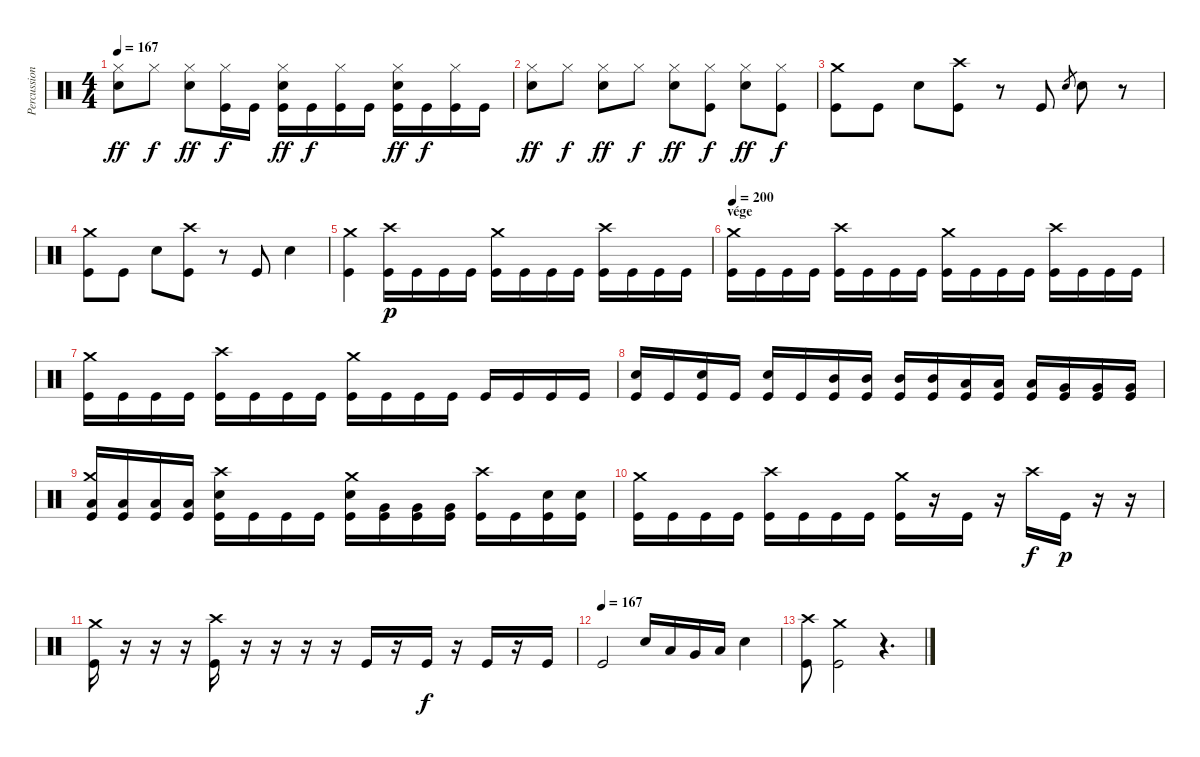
\track ("Percussion" "Percussion") {instrument percussion}
\staff {score}
\articulation defaults
\ts (4 4)
\tempo 167
\clef neutral
\ks c
("Hi-Hat (closed)" "Electric Snare (hit)").8{dy ff} "Hi-Hat (closed)".8{dy f} ("Hi-Hat (closed)" "Electric Snare (hit)").8{dy ff} ("Hi-Hat (closed)" "Kick (hit)").16{dy f} "Kick (hit)".16 ("Hi-Hat (closed)" "Kick (hit)" "Electric Snare (hit)").16{dy ff} "Kick (hit)".16{dy f} ("Hi-Hat (closed)" "Kick (hit)").16 "Kick (hit)".16 ("Hi-Hat (closed)" "Kick (hit)" "Electric Snare (hit)").16{dy ff} "Kick (hit)".16{dy f} ("Hi-Hat (closed)" "Kick (hit)").16 "Kick (hit)".16 |
("Hi-Hat (closed)" "Electric Snare (hit)").8{dy ff} "Hi-Hat (closed)".8{dy f} ("Hi-Hat (closed)" "Electric Snare (hit)").8{dy ff} "Hi-Hat (closed)".8{dy f} ("Hi-Hat (closed)" "Electric Snare (hit)").8{dy ff} ("Hi-Hat (closed)" "Kick (hit)").8{dy f} ("Hi-Hat (closed)" "Electric Snare (hit)").8{dy ff} ("Hi-Hat (closed)" "Kick (hit)").8{dy f} |
("Crash medium (hit)" "Kick (hit)").8 "Kick (hit)".8 "Electric Snare (hit)".8 ("Crash high (hit)" "Kick (hit)").8 r.8 "Kick (hit)".8 "Electric Snare (hit)".8{gr} "Electric Snare (hit)".8 r.8 |
("Crash medium (hit)" "Kick (hit)").8 "Kick (hit)".8 "Electric Snare (hit)".8 ("Crash high (hit)" "Kick (hit)").8 r.8 "Kick (hit)".8 "Electric Snare (hit)".4 |
("Crash medium (hit)" "Kick (hit)").4{volume 10} ("Crash high (hit)" "Kick (hit)").16{dy p} "Kick (hit)".16 "Kick (hit)".16 "Kick (hit)".16 ("Crash medium (hit)" "Kick (hit)").16 "Kick (hit)".16 "Kick (hit)".16 "Kick (hit)".16 ("Crash high (hit)" "Kick (hit)").16 "Kick (hit)".16 "Kick (hit)".16 "Kick (hit)".16 |
\section ("" "vége")
\tempo 200
("Crash medium (hit)" "Kick (hit)").16 "Kick (hit)".16 "Kick (hit)".16 "Kick (hit)".16 ("Crash high (hit)" "Kick (hit)").16 "Kick (hit)".16 "Kick (hit)".16 "Kick (hit)".16 ("Crash medium (hit)" "Kick (hit)").16 "Kick (hit)".16 "Kick (hit)".16 "Kick (hit)".16 ("Crash high (hit)" "Kick (hit)").16 "Kick (hit)".16 "Kick (hit)".16 "Kick (hit)".16 |
("Crash medium (hit)" "Kick (hit)").16 "Kick (hit)".16 "Kick (hit)".16 "Kick (hit)".16 ("Crash high (hit)" "Kick (hit)").16 "Kick (hit)".16 "Kick (hit)".16 "Kick (hit)".16 ("Crash medium (hit)" "Kick (hit)").16 "Kick (hit)".16 "Kick (hit)".16 "Kick (hit)".16 "Kick (hit)".16 "Kick (hit)".16 "Kick (hit)".16 "Kick (hit)".16 |
("Kick (hit)" "Electric Snare (hit)").16 "Kick (hit)".16 ("Kick (hit)" "Electric Snare (hit)").16 "Kick (hit)".16 ("Kick (hit)" "Electric Snare (hit)").16 "Kick (hit)".16 ("Kick (hit)" "Mid Tom (hit)").16 ("Kick (hit)" "Mid Tom (hit)").16 ("Kick (hit)" "Mid Tom (hit)").16 ("Kick (hit)" "Mid Tom (hit)").16 ("Kick (hit)" "Low Tom (hit)").16 ("Kick (hit)" "Low Tom (hit)").16 ("Kick (hit)" "Low Tom (hit)").16 ("Kick (hit)" "Very Low Tom (hit)").16 ("Kick (hit)" "Very Low Tom (hit)").16 ("Kick (hit)" "Very Low Tom (hit)").16 |
("Crash medium (hit)" "Kick (hit)" "Low Floor Tom (hit)").16 ("Kick (hit)" "Low Floor Tom (hit)").16 ("Kick (hit)" "Low Floor Tom (hit)").16 ("Kick (hit)" "Low Floor Tom (hit)").16 ("Crash high (hit)" "Kick (hit)" "Electric Snare (hit)").16 "Kick (hit)".16 "Kick (hit)".16 "Kick (hit)".16 ("Crash medium (hit)" "Kick (hit)" "Electric Snare (hit)").16 ("Kick (hit)" "Very Low Tom (hit)").16 ("Kick (hit)" "Very Low Tom (hit)").16 ("Kick (hit)" "Very Low Tom (hit)").16 ("Crash high (hit)" "Kick (hit)").16 "Kick (hit)".16 ("Kick (hit)" "Electric Snare (hit)").16 ("Kick (hit)" "Electric Snare (hit)").16 |
("Crash medium (hit)" "Kick (hit)").16 "Kick (hit)".16 "Kick (hit)".16 "Kick (hit)".16 ("Crash high (hit)" "Kick (hit)").16 "Kick (hit)".16 "Kick (hit)".16 "Kick (hit)".16 ("Crash medium (hit)" "Kick (hit)").16 r.16 "Kick (hit)".16 r.16 "Crash high (hit)".16{dy f} "Kick (hit)".16{dy p} r.16 r.16 |
("Crash medium (hit)" "Kick (hit)").16 r.16 r.16 r.16 ("Crash high (hit)" "Kick (hit)").16 r.16 r.16 r.16 r.16 "Kick (hit)".16 r.16 "Kick (hit)".16{dy f} r.16 "Kick (hit)".16 r.16 "Kick (hit)".16 |
\tempo (167)
"Kick (hit)".2{volume 13} "Electric Snare (hit)".16 "Low Tom (hit)".16 "Very Low Tom (hit)".16 "Low Floor Tom (hit)".16 "Electric Snare (hit)".4 |
("Crash high (hit)" "Kick (hit)").8 ("Crash medium (hit)" "Kick (hit)").2 r.4{d}
